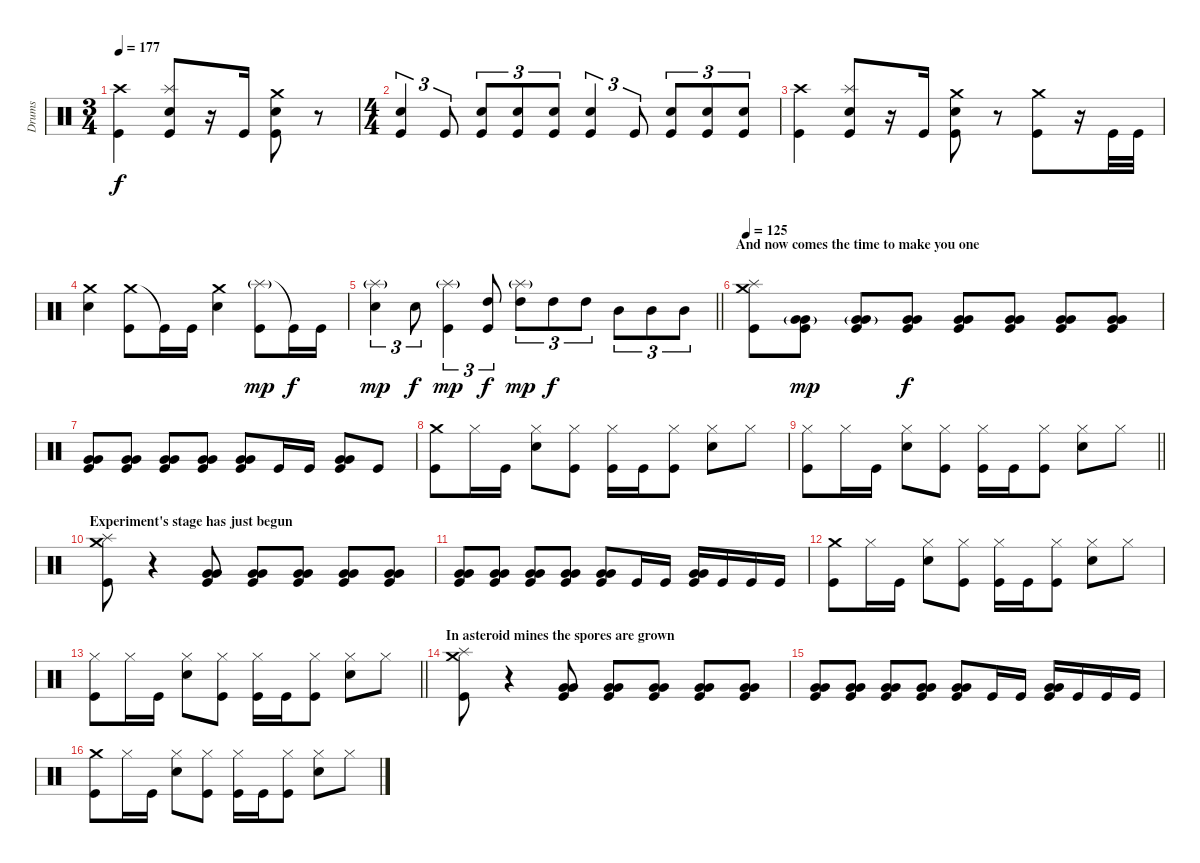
\track ("Drums" "Drums") {instrument percussion}
\staff {score}
\articulation defaults
\ts (3 4)
\tempo 177
\clef neutral
\ks c
("Crash high (hit)" "Kick (hit)").4{dy f} ("Splash (hit)" "Snare (hit) 2" "Kick (hit)").8 r.16 "Kick (hit)".16 ("Crash medium (hit)" "Snare (hit) 2" "Kick (hit)").8 r.8 |
\ts (4 4)
("Snare (hit) 2" "Kick (hit)").4{tu (3 2)} "Kick (hit)".8{tu (3 2)} ("Snare (hit) 2" "Kick (hit)").8{tu (3 2)} ("Snare (hit) 2" "Kick (hit)").8{tu (3 2)} ("Snare (hit) 2" "Kick (hit)").8{tu (3 2)} ("Snare (hit) 2" "Kick (hit)").4{tu (3 2)} "Kick (hit)".8{tu (3 2)} ("Snare (hit) 2" "Kick (hit)").8{tu (3 2)} ("Snare (hit) 2" "Kick (hit)").8{tu (3 2)} ("Snare (hit) 2" "Kick (hit)").8{tu (3 2)} |
("Crash high (hit)" "Kick (hit)").4 ("Splash (hit)" "Snare (hit) 2" "Kick (hit)").8 r.16 "Kick (hit)".16 ("Crash medium (hit)" "Snare (hit) 2" "Kick (hit)").8 r.8 ("Crash medium (hit)" "Kick (hit)").8 r.16 "Kick (hit)".32 "Kick (hit)".32 |
("Crash medium (hit)" "Snare (hit) 2").4 ("Crash medium (hit)" "Kick (hit)").8 "Kick (hit)"{t}.16 "Kick (hit)".16 ("Crash medium (hit)" "Snare (hit) 2").4 ("Splash (hit)"{g} "Kick (hit)").8{dy mp} "Kick (hit)"{t}.16{dy f} "Kick (hit)".16 |
\barLineRight lightlight
("Splash (hit)"{g} "Snare (hit) 2").4{tu (3 2) dy mp} "Snare (hit) 2".8{tu (3 2) dy f} ("Splash (hit)"{g} "Kick (hit)").4{tu (3 2) dy mp} ("High Tom (hit)" "Kick (hit)").8{tu (3 2) dy f} ("Splash (hit)"{g} "High Tom (hit)").8{tu (3 2) dy mp} "High Tom (hit)".8{tu (3 2) dy f} "High Tom (hit)".8{tu (3 2)} "Mid Tom (hit)".8{tu (3 2)} "Mid Tom (hit)".8{tu (3 2)} "Mid Tom (hit)".8{tu (3 2)} |
\section ("" "And now comes the time to make you one ")
\tempo 125
("Splash (hit)" "Crash medium (hit)" "Kick (hit)").8 ("Very Low Tom (hit)"{g} "Very Low Tom (hit)"{g} "Kick (hit)").8{dy mp} ("Very Low Tom (hit)"{g} "Very Low Tom (hit)"{g} "Kick (hit)").8 ("Very Low Tom (hit)" "Very Low Tom (hit)" "Kick (hit)").8{dy f} ("Very Low Tom (hit)" "Very Low Tom (hit)" "Kick (hit)").8 ("Very Low Tom (hit)" "Very Low Tom (hit)" "Kick (hit)").8 ("Very Low Tom (hit)" "Very Low Tom (hit)" "Kick (hit)").8 ("Very Low Tom (hit)" "Very Low Tom (hit)" "Kick (hit)").8 |
("Very Low Tom (hit)" "Very Low Tom (hit)" "Kick (hit)").8 ("Very Low Tom (hit)" "Very Low Tom (hit)" "Kick (hit)").8 ("Very Low Tom (hit)" "Very Low Tom (hit)" "Kick (hit)").8 ("Very Low Tom (hit)" "Very Low Tom (hit)" "Kick (hit)").8 ("Very Low Tom (hit)" "Very Low Tom (hit)" "Kick (hit)").8 "Kick (hit)".16 "Kick (hit)".16 ("Very Low Tom (hit)" "Very Low Tom (hit)" "Kick (hit)").8 "Kick (hit)".8 |
("Crash medium (hit)" "Kick (hit)").8 "Hi-Hat (closed)".16 "Kick (hit)".16 ("Hi-Hat (closed)" "Snare (hit) 2").8 ("Hi-Hat (closed)" "Kick (hit)").8 ("Hi-Hat (closed)" "Kick (hit)").16 "Kick (hit)".16 ("Hi-Hat (closed)" "Kick (hit)").8 ("Hi-Hat (closed)" "Snare (hit) 2").8 "Hi-Hat (closed)".8 |
\barLineRight lightlight
("Hi-Hat (closed)" "Kick (hit)").8 "Hi-Hat (closed)".16 "Kick (hit)".16 ("Hi-Hat (closed)" "Snare (hit) 2").8 ("Hi-Hat (closed)" "Kick (hit)").8 ("Hi-Hat (closed)" "Kick (hit)").16 "Kick (hit)".16 ("Hi-Hat (closed)" "Kick (hit)").8 ("Hi-Hat (closed)" "Snare (hit) 2").8 "Hi-Hat (closed)".8 |
\section ("" "Experiment's stage has just begun ")
("Splash (hit)" "Crash medium (hit)" "Kick (hit)").8 r.4 ("Very Low Tom (hit)" "Very Low Tom (hit)" "Kick (hit)").8 ("Very Low Tom (hit)" "Very Low Tom (hit)" "Kick (hit)").8 ("Very Low Tom (hit)" "Very Low Tom (hit)" "Kick (hit)").8 ("Very Low Tom (hit)" "Very Low Tom (hit)" "Kick (hit)").8 ("Very Low Tom (hit)" "Very Low Tom (hit)" "Kick (hit)").8 |
("Very Low Tom (hit)" "Very Low Tom (hit)" "Kick (hit)").8 ("Very Low Tom (hit)" "Very Low Tom (hit)" "Kick (hit)").8 ("Very Low Tom (hit)" "Very Low Tom (hit)" "Kick (hit)").8 ("Very Low Tom (hit)" "Very Low Tom (hit)" "Kick (hit)").8 ("Very Low Tom (hit)" "Very Low Tom (hit)" "Kick (hit)").8 "Kick (hit)".16 "Kick (hit)".16 ("Very Low Tom (hit)" "Very Low Tom (hit)" "Kick (hit)").16 "Kick (hit)".16 "Kick (hit)".16 "Kick (hit)".16 |
("Crash medium (hit)" "Kick (hit)").8 "Hi-Hat (closed)".16 "Kick (hit)".16 ("Hi-Hat (closed)" "Snare (hit) 2").8 ("Hi-Hat (closed)" "Kick (hit)").8 ("Hi-Hat (closed)" "Kick (hit)").16 "Kick (hit)".16 ("Hi-Hat (closed)" "Kick (hit)").8 ("Hi-Hat (closed)" "Snare (hit) 2").8 "Hi-Hat (closed)".8 |
\barLineRight lightlight
("Hi-Hat (closed)" "Kick (hit)").8 "Hi-Hat (closed)".16 "Kick (hit)".16 ("Hi-Hat (closed)" "Snare (hit) 2").8 ("Hi-Hat (closed)" "Kick (hit)").8 ("Hi-Hat (closed)" "Kick (hit)").16 "Kick (hit)".16 ("Hi-Hat (closed)" "Kick (hit)").8 ("Hi-Hat (closed)" "Snare (hit) 2").8 "Hi-Hat (closed)".8 |
\section ("" "In asteroid mines the spores are grown ")
("Splash (hit)" "Crash medium (hit)" "Kick (hit)").8 r.4 ("Very Low Tom (hit)" "Very Low Tom (hit)" "Kick (hit)").8 ("Very Low Tom (hit)" "Very Low Tom (hit)" "Kick (hit)").8 ("Very Low Tom (hit)" "Very Low Tom (hit)" "Kick (hit)").8 ("Very Low Tom (hit)" "Very Low Tom (hit)" "Kick (hit)").8 ("Very Low Tom (hit)" "Very Low Tom (hit)" "Kick (hit)").8 |
("Very Low Tom (hit)" "Very Low Tom (hit)" "Kick (hit)").8 ("Very Low Tom (hit)" "Very Low Tom (hit)" "Kick (hit)").8 ("Very Low Tom (hit)" "Very Low Tom (hit)" "Kick (hit)").8 ("Very Low Tom (hit)" "Very Low Tom (hit)" "Kick (hit)").8 ("Very Low Tom (hit)" "Very Low Tom (hit)" "Kick (hit)").8 "Kick (hit)".16 "Kick (hit)".16 ("Very Low Tom (hit)" "Very Low Tom (hit)" "Kick (hit)").16 "Kick (hit)".16 "Kick (hit)".16 "Kick (hit)".16 |
("Crash medium (hit)" "Kick (hit)").8 "Hi-Hat (closed)".16 "Kick (hit)".16 ("Hi-Hat (closed)" "Snare (hit) 2").8 ("Hi-Hat (closed)" "Kick (hit)").8 ("Hi-Hat (closed)" "Kick (hit)").16 "Kick (hit)".16 ("Hi-Hat (closed)" "Kick (hit)").8 ("Hi-Hat (closed)" "Snare (hit) 2").8 "Hi-Hat (closed)".8
